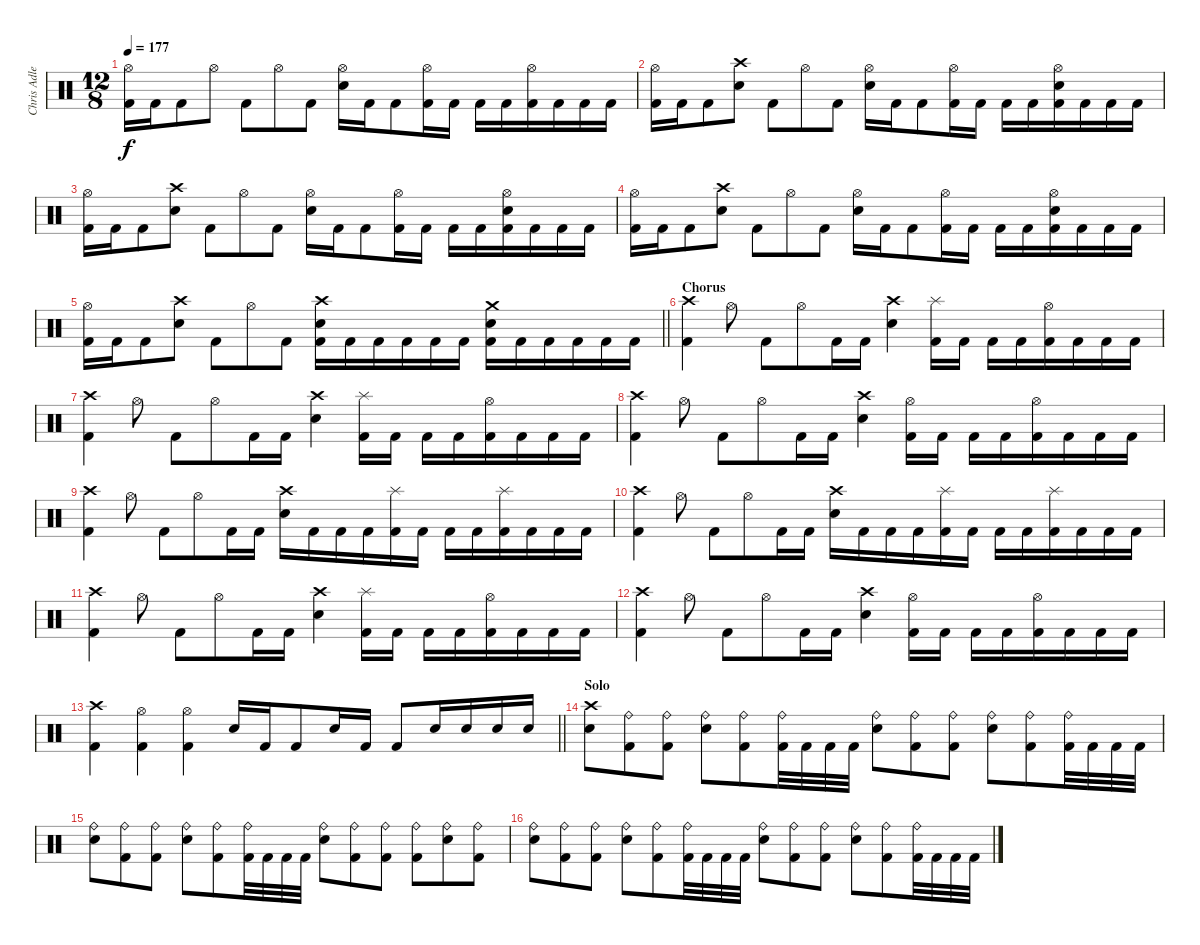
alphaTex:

\track ("Chris Adler" "Chris Adle") {instrument percussion}
\staff {score}
\articulation defaults
\ts (12 8)
\tempo 177
\clef neutral
\ks c
("Hi-Hat (open)" "Kick (hit) 2").16{dy f} "Kick (hit) 2".16 "Kick (hit) 2".8 "Hi-Hat (open)".8 "Kick (hit) 2".8 "Hi-Hat (open)".8 "Kick (hit) 2".8 ("Hi-Hat (open)" "Snare (hit) 2").16 "Kick (hit) 2".16 "Kick (hit) 2".8 ("Hi-Hat (open)" "Kick (hit) 2").16 "Kick (hit) 2".16 "Kick (hit) 2".16 "Kick (hit) 2".16 ("Hi-Hat (open)" "Kick (hit) 2").16 "Kick (hit) 2".16 "Kick (hit) 2".16 "Kick (hit) 2".16 |
("Hi-Hat (open)" "Kick (hit) 2").16 "Kick (hit) 2".16 "Kick (hit) 2".8 ("Crash high (hit)" "Electric Snare (hit)").8 "Kick (hit) 2".8 "Hi-Hat (open)".8 "Kick (hit) 2".8 ("Hi-Hat (open)" "Snare (hit) 2").16 "Kick (hit) 2".16 "Kick (hit) 2".8 ("Hi-Hat (open)" "Kick (hit) 2").16 "Kick (hit) 2".16 "Kick (hit) 2".16 "Kick (hit) 2".16 ("Snare (hit) 2" "Hi-Hat (open)" "Kick (hit) 2").16 "Kick (hit) 2".16 "Kick (hit) 2".16 "Kick (hit) 2".16 |
("Hi-Hat (open)" "Kick (hit) 2").16 "Kick (hit) 2".16 "Kick (hit) 2".8 ("Crash high (hit)" "Snare (hit) 2").8 "Kick (hit) 2".8 "Hi-Hat (open)".8 "Kick (hit) 2".8 ("Hi-Hat (open)" "Snare (hit) 2").16 "Kick (hit) 2".16 "Kick (hit) 2".8 ("Hi-Hat (open)" "Kick (hit) 2").16 "Kick (hit) 2".16 "Kick (hit) 2".16 "Kick (hit) 2".16 ("Snare (hit) 2" "Hi-Hat (open)" "Kick (hit) 2").16 "Kick (hit) 2".16 "Kick (hit) 2".16 "Kick (hit) 2".16 |
("Hi-Hat (open)" "Kick (hit) 2").16 "Kick (hit) 2".16 "Kick (hit) 2".8 ("Crash high (hit)" "Snare (hit) 2").8 "Kick (hit) 2".8 "Hi-Hat (open)".8 "Kick (hit) 2".8 ("Hi-Hat (open)" "Snare (hit) 2").16 "Kick (hit) 2".16 "Kick (hit) 2".8 ("Hi-Hat (open)" "Kick (hit) 2").16 "Kick (hit) 2".16 "Kick (hit) 2".16 "Kick (hit) 2".16 ("Snare (hit) 2" "Hi-Hat (open)" "Kick (hit) 2").16 "Kick (hit) 2".16 "Kick (hit) 2".16 "Kick (hit) 2".16 |
\barLineRight lightlight
("Hi-Hat (open)" "Kick (hit) 2").16 "Kick (hit) 2".16 "Kick (hit) 2".8 ("Snare (hit) 2" "Crash high (hit)").8 "Kick (hit) 2".8 "Hi-Hat (open)".8 "Kick (hit) 2".8 ("Crash high (hit)" "Kick (hit) 2" "Snare (hit) 2").16 "Kick (hit) 2".16 "Kick (hit) 2".16 "Kick (hit) 2".16 "Kick (hit) 2".16 "Kick (hit) 2".16 ("Crash medium (hit)" "Snare (hit) 2" "Kick (hit) 2").16 "Kick (hit) 2".16 "Kick (hit) 2".16 "Kick (hit) 2".16 "Kick (hit) 2".16 "Kick (hit) 2".16 |
\section ("" "Chorus")
("Crash high (hit)" "Kick (hit) 2").4 "Hi-Hat (open)".8 "Kick (hit) 2".8 "Hi-Hat (open)".8 "Kick (hit) 2".16 "Kick (hit) 2".16 ("Crash high (hit)" "Snare (hit) 2").4 ("Splash (hit)" "Kick (hit) 2").16 "Kick (hit) 2".16 "Kick (hit) 2".16 "Kick (hit) 2".16 ("Hi-Hat (open)" "Kick (hit) 2").16 "Kick (hit) 2".16 "Kick (hit) 2".16 "Kick (hit) 2".16 |
("Crash high (hit)" "Kick (hit) 2").4 "Hi-Hat (open)".8 "Kick (hit) 2".8 "Hi-Hat (open)".8 "Kick (hit) 2".16 "Kick (hit) 2".16 ("Crash high (hit)" "Snare (hit) 2").4 ("Splash (hit)" "Kick (hit) 2").16 "Kick (hit) 2".16 "Kick (hit) 2".16 "Kick (hit) 2".16 ("Hi-Hat (open)" "Kick (hit) 2").16 "Kick (hit) 2".16 "Kick (hit) 2".16 "Kick (hit) 2".16 |
("Crash high (hit)" "Kick (hit) 2").4 "Hi-Hat (open)".8 "Kick (hit) 2".8 "Hi-Hat (open)".8 "Kick (hit) 2".16 "Kick (hit) 2".16 ("Crash high (hit)" "Snare (hit) 2").4 ("Hi-Hat (open)" "Kick (hit) 2").16 "Kick (hit) 2".16 "Kick (hit) 2".16 "Kick (hit) 2".16 ("Hi-Hat (open)" "Kick (hit) 2").16 "Kick (hit) 2".16 "Kick (hit) 2".16 "Kick (hit) 2".16 |
("Crash high (hit)" "Kick (hit) 2").4 "Hi-Hat (open)".8 "Kick (hit) 2".8 "Hi-Hat (open)".8 "Kick (hit) 2".16 "Kick (hit) 2".16 ("Crash high (hit)" "Snare (hit) 2").16 "Kick (hit) 2".16 "Kick (hit) 2".16 "Kick (hit) 2".16 ("Splash (hit)" "Kick (hit) 2").16 "Kick (hit) 2".16 "Kick (hit) 2".16 "Kick (hit) 2".16 ("Splash (hit)" "Kick (hit) 2").16 "Kick (hit) 2".16 "Kick (hit) 2".16 "Kick (hit) 2".16 |
("Crash high (hit)" "Kick (hit) 2").4 "Hi-Hat (open)".8 "Kick (hit) 2".8 "Hi-Hat (open)".8 "Kick (hit) 2".16 "Kick (hit) 2".16 ("Crash high (hit)" "Snare (hit) 2").16 "Kick (hit) 2".16 "Kick (hit) 2".16 "Kick (hit) 2".16 ("Splash (hit)" "Kick (hit) 2").16 "Kick (hit) 2".16 "Kick (hit) 2".16 "Kick (hit) 2".16 ("Splash (hit)" "Kick (hit) 2").16 "Kick (hit) 2".16 "Kick (hit) 2".16 "Kick (hit) 2".16 |
("Crash high (hit)" "Kick (hit) 2").4 "Hi-Hat (open)".8 "Kick (hit) 2".8 "Hi-Hat (open)".8 "Kick (hit) 2".16 "Kick (hit) 2".16 ("Crash high (hit)" "Snare (hit) 2").4 ("Splash (hit)" "Kick (hit) 2").16 "Kick (hit) 2".16 "Kick (hit) 2".16 "Kick (hit) 2".16 ("Hi-Hat (open)" "Kick (hit) 2").16 "Kick (hit) 2".16 "Kick (hit) 2".16 "Kick (hit) 2".16 |
("Crash high (hit)" "Kick (hit) 2").4 "Hi-Hat (open)".8 "Kick (hit) 2".8 "Hi-Hat (open)".8 "Kick (hit) 2".16 "Kick (hit) 2".16 ("Crash high (hit)" "Snare (hit) 2").4 ("Hi-Hat (open)" "Kick (hit) 2").16 "Kick (hit) 2".16 "Kick (hit) 2".16 "Kick (hit) 2".16 ("Hi-Hat (open)" "Kick (hit) 2").16 "Kick (hit) 2".16 "Kick (hit) 2".16 "Kick (hit) 2".16 |
\barLineRight lightlight
("Crash high (hit)" "Kick (hit) 2").4 ("Hi-Hat (open)" "Kick (hit) 2").4 ("Hi-Hat (open)" "Kick (hit) 2").4 "Snare (hit) 2".16 "Kick (hit) 2".16 "Kick (hit) 2".8 "Snare (hit) 2".16 "Kick (hit) 2".16 "Kick (hit) 2".8 "Snare (hit) 2".16 "Snare (hit) 2".16 "Snare (hit) 2".16 "Snare (hit) 2".16 |
\section ("" "Solo")
("Crash high (hit)" "Snare (hit) 2").8 ("Ride (bell)" "Kick (hit) 2").8 ("Ride (bell)" "Kick (hit) 2").8 ("Ride (bell)" "Snare (hit) 2").8 ("Ride (bell)" "Kick (hit) 2").8 ("Ride (bell)" "Kick (hit) 2").32 "Kick (hit) 2".32 "Kick (hit) 2".32 "Kick (hit) 2".32 ("Ride (bell)" "Snare (hit) 2").8 ("Ride (bell)" "Kick (hit) 2").8 ("Ride (bell)" "Kick (hit) 2").8 ("Ride (bell)" "Snare (hit) 2").8 ("Ride (bell)" "Kick (hit) 2").8 ("Ride (bell)" "Kick (hit) 2").32 "Kick (hit) 2".32 "Kick (hit) 2".32 "Kick (hit) 2".32 |
("Ride (bell)" "Snare (hit) 2").8 ("Ride (bell)" "Kick (hit) 2").8 ("Ride (bell)" "Kick (hit) 2").8 ("Ride (bell)" "Snare (hit) 2").8 ("Ride (bell)" "Kick (hit) 2").8 ("Ride (bell)" "Kick (hit) 2").32 "Kick (hit) 2".32 "Kick (hit) 2".32 "Kick (hit) 2".32 ("Ride (bell)" "Snare (hit) 2").8 ("Ride (bell)" "Kick (hit) 2").8 ("Ride (bell)" "Kick (hit) 2").8 ("Ride (bell)" "Kick (hit) 2").8 ("Ride (bell)" "Snare (hit) 2").8 ("Ride (bell)" "Kick (hit) 2").8 |
("Ride (bell)" "Snare (hit) 2").8 ("Ride (bell)" "Kick (hit) 2").8 ("Ride (bell)" "Kick (hit) 2").8 ("Ride (bell)" "Snare (hit) 2").8 ("Ride (bell)" "Kick (hit) 2").8 ("Ride (bell)" "Kick (hit) 2").32 "Kick (hit) 2".32 "Kick (hit) 2".32 "Kick (hit) 2".32 ("Ride (bell)" "Snare (hit) 2").8 ("Ride (bell)" "Kick (hit) 2").8 ("Ride (bell)" "Kick (hit) 2").8 ("Ride (bell)" "Snare (hit) 2").8 ("Ride (bell)" "Kick (hit) 2").8 ("Ride (bell)" "Kick (hit) 2").32 "Kick (hit) 2".32 "Kick (hit) 2".32 "Kick (hit) 2".32
